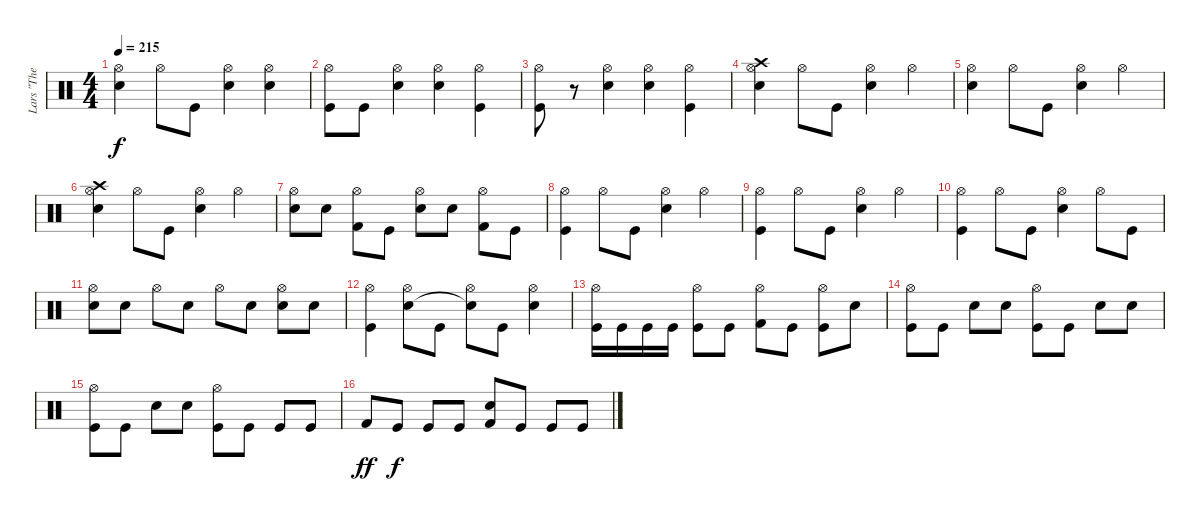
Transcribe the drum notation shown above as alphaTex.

\track ("Lars \"The Antichrist\" Ulrich" "Lars \"The ") {instrument percussion}
\staff {score}
\articulation defaults
\ts (4 4)
\tempo 215
\clef neutral
\ks c
("Hi-Hat (open)" "Electric Snare (hit)").4{dy f} "Hi-Hat (open)".8 "Kick (hit)".8 ("Hi-Hat (open)" "Electric Snare (hit)").4 ("Hi-Hat (open)" "Electric Snare (hit)").4 |
("Hi-Hat (open)" "Kick (hit)").8 "Kick (hit)".8 ("Hi-Hat (open)" "Electric Snare (hit)").4 ("Hi-Hat (open)" "Electric Snare (hit)").4 ("Hi-Hat (open)" "Kick (hit)").4 |
("Hi-Hat (open)" "Kick (hit)").8 r.8 ("Hi-Hat (open)" "Electric Snare (hit)").4 ("Hi-Hat (open)" "Electric Snare (hit)").4 ("Hi-Hat (open)" "Kick (hit)").4 |
("Hi-Hat (open)" "Crash high (hit)" "Electric Snare (hit)").4 "Hi-Hat (open)".8 "Kick (hit)".8 ("Hi-Hat (open)" "Electric Snare (hit)").4 "Hi-Hat (open)".4 |
("Hi-Hat (open)" "Electric Snare (hit)").4 "Hi-Hat (open)".8 "Kick (hit)".8 ("Hi-Hat (open)" "Electric Snare (hit)").4 "Hi-Hat (open)".4 |
("Hi-Hat (open)" "Crash high (hit)" "Electric Snare (hit)").4 "Hi-Hat (open)".8 "Kick (hit)".8 ("Hi-Hat (open)" "Electric Snare (hit)").4 "Hi-Hat (open)".4 |
("Hi-Hat (open)" "Electric Snare (hit)").8 "Electric Snare (hit)".8 ("Hi-Hat (open)" "Kick (hit) 2").8 "Kick (hit)".8 ("Hi-Hat (open)" "Electric Snare (hit)").8 "Electric Snare (hit)".8 ("Hi-Hat (open)" "Kick (hit) 2").8 "Kick (hit)".8 |
("Hi-Hat (open)" "Kick (hit)").4 "Hi-Hat (open)".8 "Kick (hit)".8 ("Hi-Hat (open)" "Electric Snare (hit)").4 "Hi-Hat (open)".4 |
("Hi-Hat (open)" "Kick (hit)").4 "Hi-Hat (open)".8 "Kick (hit)".8 ("Hi-Hat (open)" "Electric Snare (hit)").4 "Hi-Hat (open)".4 |
("Hi-Hat (open)" "Kick (hit)").4 "Hi-Hat (open)".8 "Kick (hit)".8 ("Hi-Hat (open)" "Electric Snare (hit)").4 "Hi-Hat (open)".8 "Kick (hit)".8 |
("Hi-Hat (open)" "Electric Snare (hit)").8 "Electric Snare (hit)".8 "Hi-Hat (open)".8 "Electric Snare (hit)".8 "Hi-Hat (open)".8 "Electric Snare (hit)".8 ("Hi-Hat (open)" "Electric Snare (hit)").8 "Electric Snare (hit)".8 |
("Hi-Hat (open)" "Kick (hit)").4 ("Hi-Hat (open)" "Electric Snare (hit)").8 "Kick (hit)".8 ("Hi-Hat (open)" "Snare (hit)"{t}).8 "Kick (hit)".8 ("Hi-Hat (open)" "Electric Snare (hit)").4 |
("Hi-Hat (open)" "Kick (hit)").16 "Kick (hit)".16 "Kick (hit)".16 "Kick (hit)".16 ("Hi-Hat (open)" "Kick (hit)").8 "Kick (hit)".8 ("Hi-Hat (open)" "Kick (hit) 2").8 "Kick (hit)".8 ("Hi-Hat (open)" "Kick (hit)").8 "Electric Snare (hit)".8 |
("Hi-Hat (open)" "Kick (hit)").8 "Kick (hit)".8 "Electric Snare (hit)".8 "Electric Snare (hit)".8 ("Hi-Hat (open)" "Kick (hit)").8 "Kick (hit)".8 "Electric Snare (hit)".8 "Electric Snare (hit)".8 |
("Hi-Hat (open)" "Kick (hit)").8 "Kick (hit)".8 "Electric Snare (hit)".8 "Electric Snare (hit)".8 ("Hi-Hat (open)" "Kick (hit)").8 "Kick (hit)".8 "Kick (hit)".8 "Kick (hit)".8 |
"Kick (hit) 2".8{dy ff} "Kick (hit)".8{dy f} "Kick (hit)".8 "Kick (hit)".8 ("Electric Snare (hit)" "Kick (hit) 2").8 "Kick (hit)".8 "Kick (hit)".8 "Kick (hit)".8
